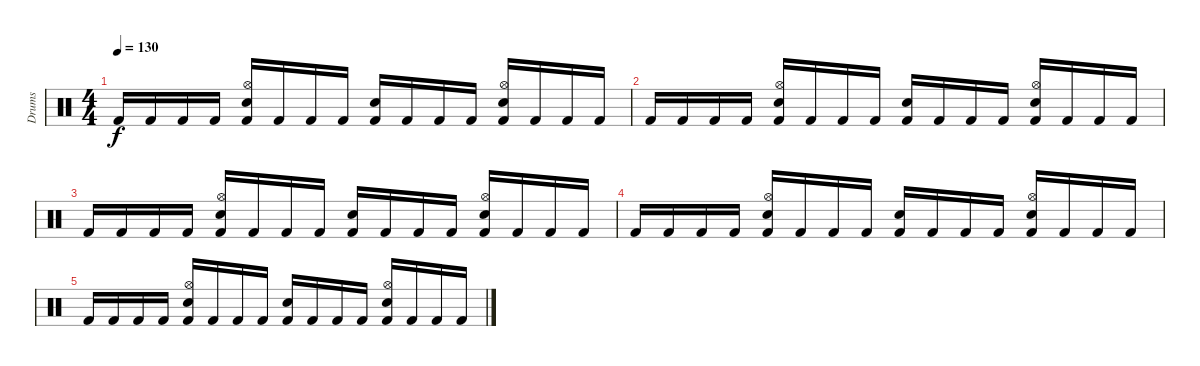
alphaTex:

\track ("Drums" "Drums") {instrument percussion}
\staff {score}
\articulation defaults
\ts (4 4)
\tempo 130
\clef neutral
\ks c "Kick (hit) 2".16{dy f} "Kick (hit) 2".16 "Kick (hit) 2".16 "Kick (hit) 2".16
("Hi-Hat (open)" "Snare (hit) 2" "Kick (hit) 2").16 "Kick (hit) 2".16 "Kick (hit) 2".16 "Kick (hit) 2".16 ("Snare (hit) 2" "Kick (hit) 2").16 "Kick (hit) 2".16 "Kick (hit) 2".16 "Kick (hit) 2".16 ("Hi-Hat (open)" "Snare (hit) 2" "Kick (hit) 2").16 "Kick (hit) 2".16 "Kick (hit) 2".16 "Kick (hit) 2".16 |
"Kick (hit) 2".16 "Kick (hit) 2".16 "Kick (hit) 2".16 "Kick (hit) 2".16 ("Hi-Hat (open)" "Snare (hit) 2" "Kick (hit) 2").16 "Kick (hit) 2".16 "Kick (hit) 2".16 "Kick (hit) 2".16 ("Snare (hit) 2" "Kick (hit) 2").16 "Kick (hit) 2".16 "Kick (hit) 2".16 "Kick (hit) 2".16 ("Hi-Hat (open)" "Snare (hit) 2" "Kick (hit) 2").16 "Kick (hit) 2".16 "Kick (hit) 2".16 "Kick (hit) 2".16 |
"Kick (hit) 2".16 "Kick (hit) 2".16 "Kick (hit) 2".16 "Kick (hit) 2".16 ("Hi-Hat (open)" "Snare (hit) 2" "Kick (hit) 2").16 "Kick (hit) 2".16 "Kick (hit) 2".16 "Kick (hit) 2".16 ("Snare (hit) 2" "Kick (hit) 2").16 "Kick (hit) 2".16 "Kick (hit) 2".16 "Kick (hit) 2".16 ("Hi-Hat (open)" "Snare (hit) 2" "Kick (hit) 2").16 "Kick (hit) 2".16 "Kick (hit) 2".16 "Kick (hit) 2".16 |
"Kick (hit) 2".16 "Kick (hit) 2".16 "Kick (hit) 2".16 "Kick (hit) 2".16 ("Hi-Hat (open)" "Snare (hit) 2" "Kick (hit) 2").16 "Kick (hit) 2".16 "Kick (hit) 2".16 "Kick (hit) 2".16 ("Snare (hit) 2" "Kick (hit) 2").16 "Kick (hit) 2".16 "Kick (hit) 2".16 "Kick (hit) 2".16 ("Hi-Hat (open)" "Snare (hit) 2" "Kick (hit) 2").16 "Kick (hit) 2".16 "Kick (hit) 2".16 "Kick (hit) 2".16 |
"Kick (hit) 2".16 "Kick (hit) 2".16 "Kick (hit) 2".16 "Kick (hit) 2".16 ("Hi-Hat (open)" "Snare (hit) 2" "Kick (hit) 2").16 "Kick (hit) 2".16 "Kick (hit) 2".16 "Kick (hit) 2".16 ("Snare (hit) 2" "Kick (hit) 2").16 "Kick (hit) 2".16 "Kick (hit) 2".16 "Kick (hit) 2".16 ("Hi-Hat (open)" "Snare (hit) 2" "Kick (hit) 2").16 "Kick (hit) 2".16 "Kick (hit) 2".16 "Kick (hit) 2".16
